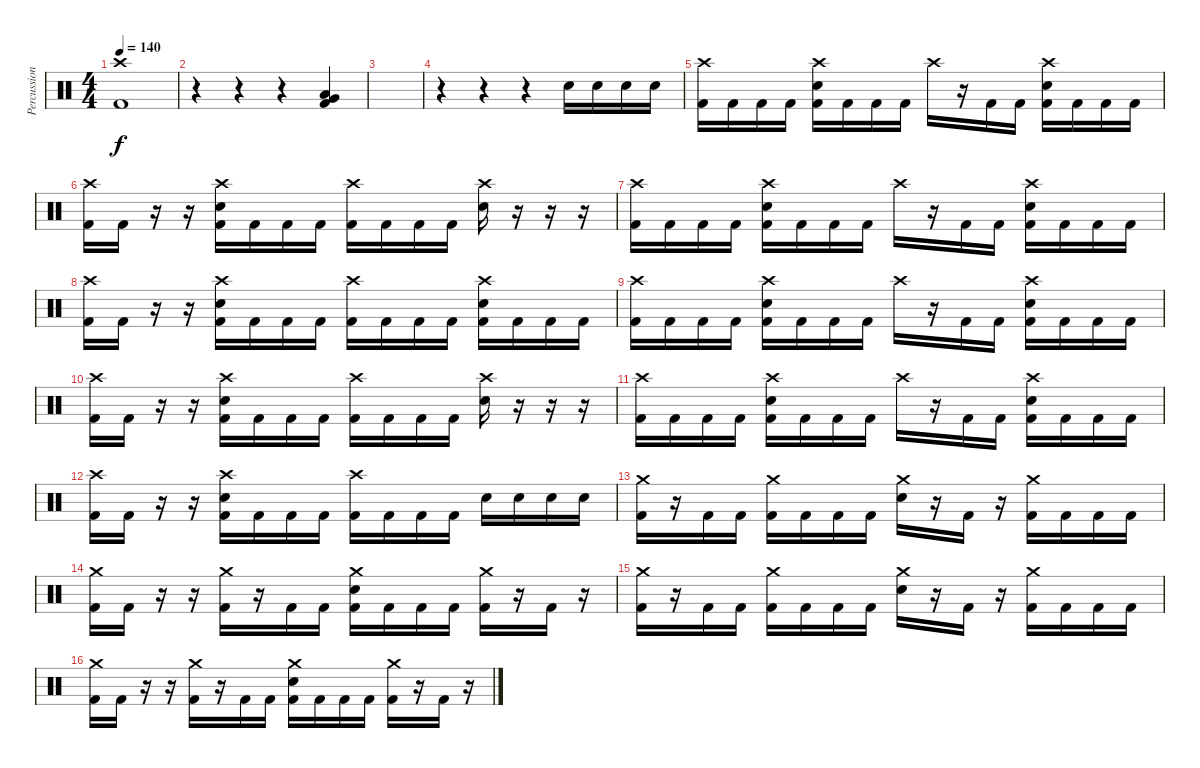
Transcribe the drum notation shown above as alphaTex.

\track ("Percussion" "Percussion") {instrument percussion}
\staff {score}
\articulation defaults
\ts (4 4)
\tempo 140
\clef neutral
\ks c
("Crash high (hit)" "Kick (hit) 2").1{dy f} |
r.4 r.4 r.4 ("Very Low Tom (hit)" "Low Floor Tom (hit)" "Kick (hit) 2").4 |
|
r.4 r.4 r.4 "Electric Snare (hit)".16 "Electric Snare (hit)".16 "Electric Snare (hit)".16 "Electric Snare (hit)".16 |
("Crash high (hit)" "Kick (hit) 2").16 "Kick (hit) 2".16 "Kick (hit) 2".16 "Kick (hit) 2".16 ("Crash high (hit)" "Electric Snare (hit)" "Kick (hit) 2").16 "Kick (hit) 2".16 "Kick (hit) 2".16 "Kick (hit) 2".16 "Crash high (hit)".16 r.16 "Kick (hit) 2".16 "Kick (hit) 2".16 ("Crash high (hit)" "Electric Snare (hit)" "Kick (hit) 2").16 "Kick (hit) 2".16 "Kick (hit) 2".16 "Kick (hit) 2".16 |
("Crash high (hit)" "Kick (hit) 2").16 "Kick (hit) 2".16 r.16 r.16 ("Crash high (hit)" "Electric Snare (hit)" "Kick (hit) 2").16 "Kick (hit) 2".16 "Kick (hit) 2".16 "Kick (hit) 2".16 ("Crash high (hit)" "Kick (hit) 2").16 "Kick (hit) 2".16 "Kick (hit) 2".16 "Kick (hit) 2".16 ("Crash high (hit)" "Electric Snare (hit)").16 r.16 r.16 r.16 |
("Crash high (hit)" "Kick (hit) 2").16 "Kick (hit) 2".16 "Kick (hit) 2".16 "Kick (hit) 2".16 ("Crash high (hit)" "Electric Snare (hit)" "Kick (hit) 2").16 "Kick (hit) 2".16 "Kick (hit) 2".16 "Kick (hit) 2".16 "Crash high (hit)".16 r.16 "Kick (hit) 2".16 "Kick (hit) 2".16 ("Crash high (hit)" "Electric Snare (hit)" "Kick (hit) 2").16 "Kick (hit) 2".16 "Kick (hit) 2".16 "Kick (hit) 2".16 |
("Crash high (hit)" "Kick (hit) 2").16 "Kick (hit) 2".16 r.16 r.16 ("Crash high (hit)" "Electric Snare (hit)" "Kick (hit) 2").16 "Kick (hit) 2".16 "Kick (hit) 2".16 "Kick (hit) 2".16 ("Crash high (hit)" "Kick (hit) 2").16 "Kick (hit) 2".16 "Kick (hit) 2".16 "Kick (hit) 2".16 ("Crash high (hit)" "Electric Snare (hit)" "Kick (hit) 2").16 "Kick (hit) 2".16 "Kick (hit) 2".16 "Kick (hit) 2".16 |
("Crash high (hit)" "Kick (hit) 2").16 "Kick (hit) 2".16 "Kick (hit) 2".16 "Kick (hit) 2".16 ("Crash high (hit)" "Electric Snare (hit)" "Kick (hit) 2").16 "Kick (hit) 2".16 "Kick (hit) 2".16 "Kick (hit) 2".16 "Crash high (hit)".16 r.16 "Kick (hit) 2".16 "Kick (hit) 2".16 ("Crash high (hit)" "Electric Snare (hit)" "Kick (hit) 2").16 "Kick (hit) 2".16 "Kick (hit) 2".16 "Kick (hit) 2".16 |
("Crash high (hit)" "Kick (hit) 2").16 "Kick (hit) 2".16 r.16 r.16 ("Crash high (hit)" "Electric Snare (hit)" "Kick (hit) 2").16 "Kick (hit) 2".16 "Kick (hit) 2".16 "Kick (hit) 2".16 ("Crash high (hit)" "Kick (hit) 2").16 "Kick (hit) 2".16 "Kick (hit) 2".16 "Kick (hit) 2".16 ("Crash high (hit)" "Electric Snare (hit)").16 r.16 r.16 r.16 |
("Crash high (hit)" "Kick (hit) 2").16 "Kick (hit) 2".16 "Kick (hit) 2".16 "Kick (hit) 2".16 ("Crash high (hit)" "Electric Snare (hit)" "Kick (hit) 2").16 "Kick (hit) 2".16 "Kick (hit) 2".16 "Kick (hit) 2".16 "Crash high (hit)".16 r.16 "Kick (hit) 2".16 "Kick (hit) 2".16 ("Crash high (hit)" "Electric Snare (hit)" "Kick (hit) 2").16 "Kick (hit) 2".16 "Kick (hit) 2".16 "Kick (hit) 2".16 |
("Crash high (hit)" "Kick (hit) 2").16 "Kick (hit) 2".16 r.16 r.16 ("Crash high (hit)" "Electric Snare (hit)" "Kick (hit) 2").16 "Kick (hit) 2".16 "Kick (hit) 2".16 "Kick (hit) 2".16 ("Crash high (hit)" "Kick (hit) 2").16 "Kick (hit) 2".16 "Kick (hit) 2".16 "Kick (hit) 2".16 "Electric Snare (hit)".16 "Electric Snare (hit)".16 "Electric Snare (hit)".16 "Electric Snare (hit)".16 |
("Crash medium (hit)" "Kick (hit) 2").16 r.16 "Kick (hit) 2".16 "Kick (hit) 2".16 ("Crash medium (hit)" "Kick (hit) 2").16 "Kick (hit) 2".16 "Kick (hit) 2".16 "Kick (hit) 2".16 ("Crash medium (hit)" "Electric Snare (hit)").16 r.16 "Kick (hit) 2".16 r.16 ("Crash medium (hit)" "Kick (hit) 2").16 "Kick (hit) 2".16 "Kick (hit) 2".16 "Kick (hit) 2".16 |
("Crash medium (hit)" "Kick (hit) 2").16 "Kick (hit) 2".16 r.16 r.16 ("Crash medium (hit)" "Kick (hit) 2").16 r.16 "Kick (hit) 2".16 "Kick (hit) 2".16 ("Crash medium (hit)" "Electric Snare (hit)" "Kick (hit) 2").16 "Kick (hit) 2".16 "Kick (hit) 2".16 "Kick (hit) 2".16 ("Crash medium (hit)" "Kick (hit) 2").16 r.16 "Kick (hit) 2".16 r.16 |
("Crash medium (hit)" "Kick (hit) 2").16 r.16 "Kick (hit) 2".16 "Kick (hit) 2".16 ("Crash medium (hit)" "Kick (hit) 2").16 "Kick (hit) 2".16 "Kick (hit) 2".16 "Kick (hit) 2".16 ("Crash medium (hit)" "Electric Snare (hit)").16 r.16 "Kick (hit) 2".16 r.16 ("Crash medium (hit)" "Kick (hit) 2").16 "Kick (hit) 2".16 "Kick (hit) 2".16 "Kick (hit) 2".16 |
("Crash medium (hit)" "Kick (hit) 2").16 "Kick (hit) 2".16 r.16 r.16 ("Crash medium (hit)" "Kick (hit) 2").16 r.16 "Kick (hit) 2".16 "Kick (hit) 2".16 ("Crash medium (hit)" "Electric Snare (hit)" "Kick (hit) 2").16 "Kick (hit) 2".16 "Kick (hit) 2".16 "Kick (hit) 2".16 ("Crash medium (hit)" "Kick (hit) 2").16 r.16 "Kick (hit) 2".16 r.16
